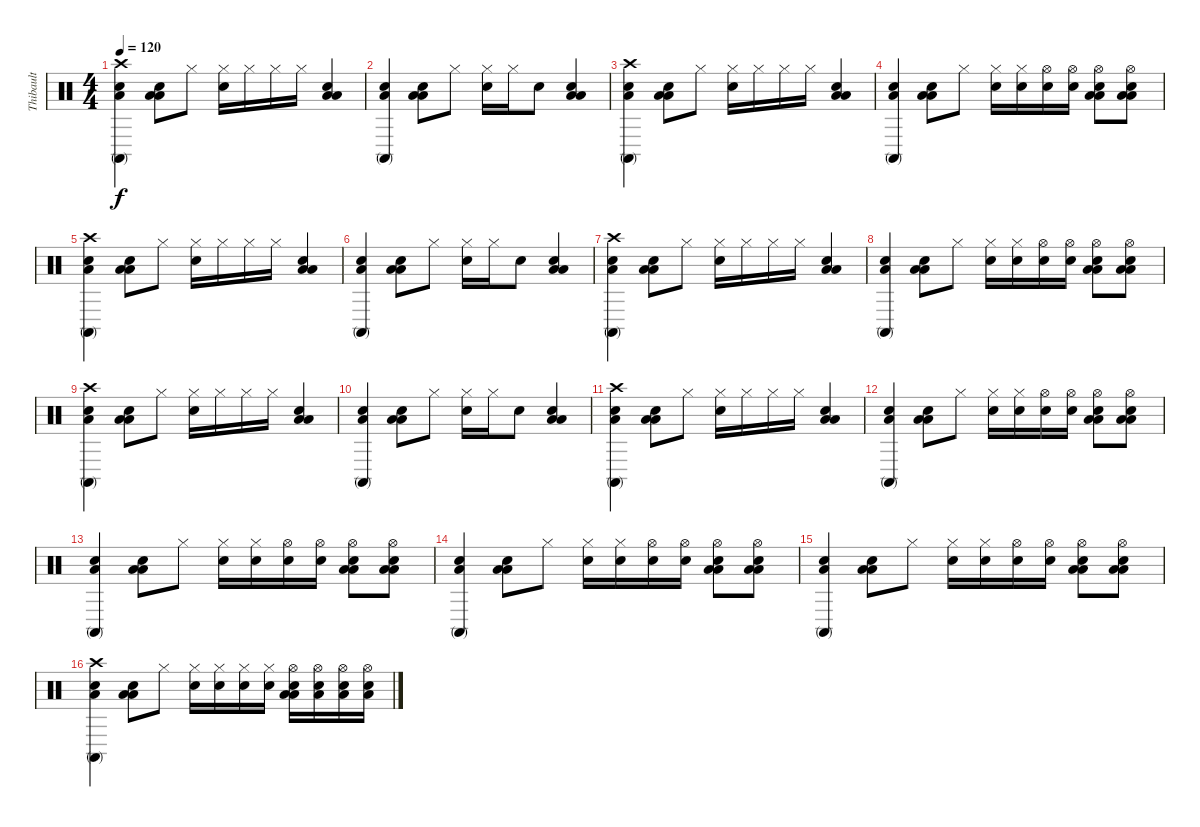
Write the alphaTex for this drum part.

\track ("Thibault" "Thibault") {instrument percussion}
\staff {score}
\articulation defaults
\ts (4 4)
\tempo 120
\clef neutral
\ks c
("Crash high (hit)" "Conga high (mute)" "Low Floor Tom (hit)" "Snare (hit) 2").4{dy f} ("Low Tom (hit)" "Low Floor Tom (hit)" "Snare (hit) 2").8 "Hi-Hat (closed)".8 ("Snare (hit) 2" "Hi-Hat (closed)").16 "Hi-Hat (closed)".16 "Hi-Hat (closed)".16 "Hi-Hat (closed)".16 ("Low Tom (hit)" "Low Floor Tom (hit)" "Snare (hit) 2").4 |
("Conga high (mute)" "Low Floor Tom (hit)" "Snare (hit) 2").4 ("Low Tom (hit)" "Low Floor Tom (hit)" "Snare (hit) 2").8 "Hi-Hat (closed)".8 ("Snare (hit) 2" "Hi-Hat (closed)").16 "Hi-Hat (closed)".16 "Snare (hit) 2".8 ("Low Tom (hit)" "Low Floor Tom (hit)" "Snare (hit) 2").4 |
("Crash high (hit)" "Conga high (mute)" "Low Floor Tom (hit)" "Snare (hit) 2").4 ("Low Tom (hit)" "Low Floor Tom (hit)" "Snare (hit) 2").8 "Hi-Hat (closed)".8 ("Snare (hit) 2" "Hi-Hat (closed)").16 "Hi-Hat (closed)".16 "Hi-Hat (closed)".16 "Hi-Hat (closed)".16 ("Low Tom (hit)" "Low Floor Tom (hit)" "Snare (hit) 2").4 |
("Conga high (mute)" "Low Floor Tom (hit)" "Snare (hit) 2").4 ("Low Tom (hit)" "Low Floor Tom (hit)" "Snare (hit) 2").8 "Hi-Hat (closed)".8 ("Snare (hit) 2" "Hi-Hat (closed)").16 ("Snare (hit) 2" "Hi-Hat (closed)").16 ("Snare (hit) 2" "Hi-Hat (open)").16 ("Snare (hit) 2" "Hi-Hat (open)").16 ("Hi-Hat (open)" "Low Tom (hit)" "Low Floor Tom (hit)" "Snare (hit) 2").8 ("Hi-Hat (open)" "Low Tom (hit)" "Low Floor Tom (hit)" "Snare (hit) 2").8 |
("Crash high (hit)" "Conga high (mute)" "Low Floor Tom (hit)" "Snare (hit) 2").4 ("Low Tom (hit)" "Low Floor Tom (hit)" "Snare (hit) 2").8 "Hi-Hat (closed)".8 ("Snare (hit) 2" "Hi-Hat (closed)").16 "Hi-Hat (closed)".16 "Hi-Hat (closed)".16 "Hi-Hat (closed)".16 ("Low Tom (hit)" "Low Floor Tom (hit)" "Snare (hit) 2").4 |
("Conga high (mute)" "Low Floor Tom (hit)" "Snare (hit) 2").4 ("Low Tom (hit)" "Low Floor Tom (hit)" "Snare (hit) 2").8 "Hi-Hat (closed)".8 ("Snare (hit) 2" "Hi-Hat (closed)").16 "Hi-Hat (closed)".16 "Snare (hit) 2".8 ("Low Tom (hit)" "Low Floor Tom (hit)" "Snare (hit) 2").4 |
("Crash high (hit)" "Conga high (mute)" "Low Floor Tom (hit)" "Snare (hit) 2").4 ("Low Tom (hit)" "Low Floor Tom (hit)" "Snare (hit) 2").8 "Hi-Hat (closed)".8 ("Snare (hit) 2" "Hi-Hat (closed)").16 "Hi-Hat (closed)".16 "Hi-Hat (closed)".16 "Hi-Hat (closed)".16 ("Low Tom (hit)" "Low Floor Tom (hit)" "Snare (hit) 2").4 |
("Conga high (mute)" "Low Floor Tom (hit)" "Snare (hit) 2").4 ("Low Tom (hit)" "Low Floor Tom (hit)" "Snare (hit) 2").8 "Hi-Hat (closed)".8 ("Snare (hit) 2" "Hi-Hat (closed)").16 ("Snare (hit) 2" "Hi-Hat (closed)").16 ("Snare (hit) 2" "Hi-Hat (open)").16 ("Snare (hit) 2" "Hi-Hat (open)").16 ("Hi-Hat (open)" "Low Tom (hit)" "Low Floor Tom (hit)" "Snare (hit) 2").8 ("Hi-Hat (open)" "Low Tom (hit)" "Low Floor Tom (hit)" "Snare (hit) 2").8 |
("Crash high (hit)" "Conga high (mute)" "Low Floor Tom (hit)" "Snare (hit) 2").4 ("Low Tom (hit)" "Low Floor Tom (hit)" "Snare (hit) 2").8 "Hi-Hat (closed)".8 ("Snare (hit) 2" "Hi-Hat (closed)").16 "Hi-Hat (closed)".16 "Hi-Hat (closed)".16 "Hi-Hat (closed)".16 ("Low Tom (hit)" "Low Floor Tom (hit)" "Snare (hit) 2").4 |
("Conga high (mute)" "Low Floor Tom (hit)" "Snare (hit) 2").4 ("Low Tom (hit)" "Low Floor Tom (hit)" "Snare (hit) 2").8 "Hi-Hat (closed)".8 ("Snare (hit) 2" "Hi-Hat (closed)").16 "Hi-Hat (closed)".16 "Snare (hit) 2".8 ("Low Tom (hit)" "Low Floor Tom (hit)" "Snare (hit) 2").4 |
("Crash high (hit)" "Conga high (mute)" "Low Floor Tom (hit)" "Snare (hit) 2").4 ("Low Tom (hit)" "Low Floor Tom (hit)" "Snare (hit) 2").8 "Hi-Hat (closed)".8 ("Snare (hit) 2" "Hi-Hat (closed)").16 "Hi-Hat (closed)".16 "Hi-Hat (closed)".16 "Hi-Hat (closed)".16 ("Low Tom (hit)" "Low Floor Tom (hit)" "Snare (hit) 2").4 |
("Conga high (mute)" "Low Floor Tom (hit)" "Snare (hit) 2").4 ("Low Tom (hit)" "Low Floor Tom (hit)" "Snare (hit) 2").8 "Hi-Hat (closed)".8 ("Snare (hit) 2" "Hi-Hat (closed)").16 ("Snare (hit) 2" "Hi-Hat (closed)").16 ("Snare (hit) 2" "Hi-Hat (open)").16 ("Snare (hit) 2" "Hi-Hat (open)").16 ("Hi-Hat (open)" "Low Tom (hit)" "Low Floor Tom (hit)" "Snare (hit) 2").8 ("Hi-Hat (open)" "Low Tom (hit)" "Low Floor Tom (hit)" "Snare (hit) 2").8 |
("Conga high (mute)" "Low Floor Tom (hit)" "Snare (hit) 2").4 ("Low Tom (hit)" "Low Floor Tom (hit)" "Snare (hit) 2").8 "Hi-Hat (closed)".8 ("Snare (hit) 2" "Hi-Hat (closed)").16 ("Snare (hit) 2" "Hi-Hat (closed)").16 ("Snare (hit) 2" "Hi-Hat (open)").16 ("Snare (hit) 2" "Hi-Hat (open)").16 ("Hi-Hat (open)" "Low Tom (hit)" "Low Floor Tom (hit)" "Snare (hit) 2").8 ("Hi-Hat (open)" "Low Tom (hit)" "Low Floor Tom (hit)" "Snare (hit) 2").8 |
("Conga high (mute)" "Low Floor Tom (hit)" "Snare (hit) 2").4 ("Low Tom (hit)" "Low Floor Tom (hit)" "Snare (hit) 2").8 "Hi-Hat (closed)".8 ("Snare (hit) 2" "Hi-Hat (closed)").16 ("Snare (hit) 2" "Hi-Hat (closed)").16 ("Snare (hit) 2" "Hi-Hat (open)").16 ("Snare (hit) 2" "Hi-Hat (open)").16 ("Hi-Hat (open)" "Low Tom (hit)" "Low Floor Tom (hit)" "Snare (hit) 2").8 ("Hi-Hat (open)" "Low Tom (hit)" "Low Floor Tom (hit)" "Snare (hit) 2").8 |
("Conga high (mute)" "Low Floor Tom (hit)" "Snare (hit) 2").4 ("Low Tom (hit)" "Low Floor Tom (hit)" "Snare (hit) 2").8 "Hi-Hat (closed)".8 ("Snare (hit) 2" "Hi-Hat (closed)").16 ("Snare (hit) 2" "Hi-Hat (closed)").16 ("Snare (hit) 2" "Hi-Hat (open)").16 ("Snare (hit) 2" "Hi-Hat (open)").16 ("Hi-Hat (open)" "Low Tom (hit)" "Low Floor Tom (hit)" "Snare (hit) 2").8 ("Hi-Hat (open)" "Low Tom (hit)" "Low Floor Tom (hit)" "Snare (hit) 2").8 |
("Crash high (hit)" "Conga high (mute)" "Low Floor Tom (hit)" "Snare (hit) 2").4 ("Low Tom (hit)" "Low Floor Tom (hit)" "Snare (hit) 2").8 "Hi-Hat (closed)".8 ("Snare (hit) 2" "Hi-Hat (closed)").16 ("Snare (hit) 2" "Hi-Hat (closed)").16 ("Snare (hit) 2" "Hi-Hat (closed)").16 ("Snare (hit) 2" "Hi-Hat (closed)").16 ("Hi-Hat (open)" "Low Tom (hit)" "Low Floor Tom (hit)" "Snare (hit) 2").16 ("Hi-Hat (open)" "Low Floor Tom (hit)" "Snare (hit) 2").16 ("Hi-Hat (open)" "Low Floor Tom (hit)" "Snare (hit) 2").16 ("Hi-Hat (open)" "Low Floor Tom (hit)" "Snare (hit) 2").16
